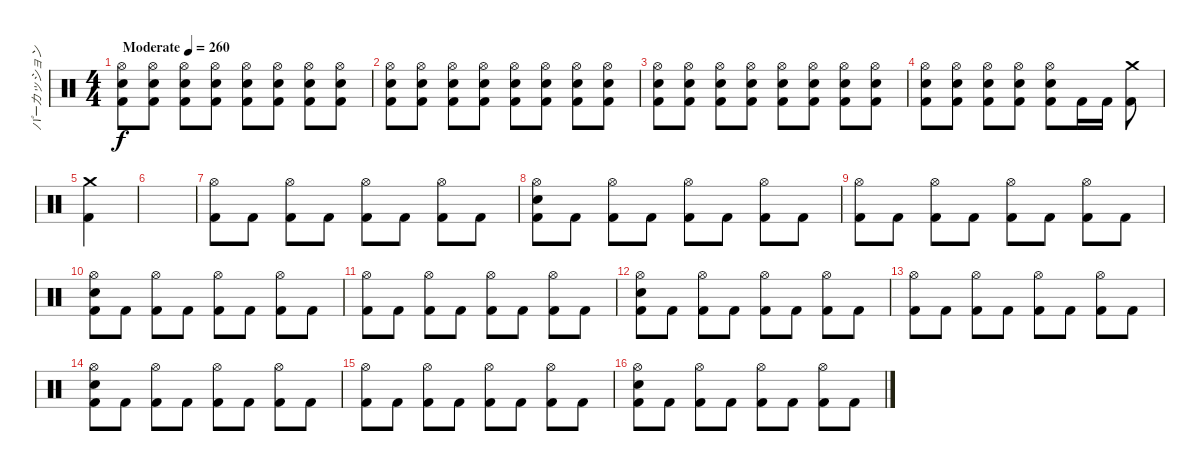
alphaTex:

\track ("パーカッション" "パーカッション") {instrument percussion}
\staff {score}
\articulation defaults
\ts (4 4)
\tempo (260 "Moderate")
\clef neutral
\ks c
("Hi-Hat (open)" "Snare (hit) 2" "Kick (hit) 2").8{dy f} ("Hi-Hat (open)" "Snare (hit) 2" "Kick (hit) 2").8 ("Hi-Hat (open)" "Snare (hit) 2" "Kick (hit) 2").8 ("Hi-Hat (open)" "Snare (hit) 2" "Kick (hit) 2").8 ("Hi-Hat (open)" "Snare (hit) 2" "Kick (hit) 2").8 ("Hi-Hat (open)" "Snare (hit) 2" "Kick (hit) 2").8 ("Hi-Hat (open)" "Snare (hit) 2" "Kick (hit) 2").8 ("Hi-Hat (open)" "Snare (hit) 2" "Kick (hit) 2").8 |
("Hi-Hat (open)" "Snare (hit) 2" "Kick (hit) 2").8 ("Hi-Hat (open)" "Snare (hit) 2" "Kick (hit) 2").8 ("Hi-Hat (open)" "Snare (hit) 2" "Kick (hit) 2").8 ("Hi-Hat (open)" "Snare (hit) 2" "Kick (hit) 2").8 ("Hi-Hat (open)" "Snare (hit) 2" "Kick (hit) 2").8 ("Hi-Hat (open)" "Snare (hit) 2" "Kick (hit) 2").8 ("Hi-Hat (open)" "Snare (hit) 2" "Kick (hit) 2").8 ("Hi-Hat (open)" "Snare (hit) 2" "Kick (hit) 2").8 |
("Hi-Hat (open)" "Snare (hit) 2" "Kick (hit) 2").8 ("Hi-Hat (open)" "Snare (hit) 2" "Kick (hit) 2").8 ("Hi-Hat (open)" "Snare (hit) 2" "Kick (hit) 2").8 ("Hi-Hat (open)" "Snare (hit) 2" "Kick (hit) 2").8 ("Hi-Hat (open)" "Snare (hit) 2" "Kick (hit) 2").8 ("Hi-Hat (open)" "Snare (hit) 2" "Kick (hit) 2").8 ("Hi-Hat (open)" "Snare (hit) 2" "Kick (hit) 2").8 ("Hi-Hat (open)" "Snare (hit) 2" "Kick (hit) 2").8 |
("Hi-Hat (open)" "Snare (hit) 2" "Kick (hit) 2").8 ("Hi-Hat (open)" "Snare (hit) 2" "Kick (hit) 2").8 ("Hi-Hat (open)" "Snare (hit) 2" "Kick (hit) 2").8 ("Hi-Hat (open)" "Snare (hit) 2" "Kick (hit) 2").8 ("Hi-Hat (open)" "Snare (hit) 2" "Kick (hit) 2").8 "Kick (hit) 2".16 "Kick (hit) 2".16 ("Crash medium (hit)" "Kick (hit) 2").8 |
("Crash medium (hit)" "Kick (hit) 2").4 |
|
("Hi-Hat (open)" "Kick (hit) 2").8 "Kick (hit) 2".8 ("Hi-Hat (open)" "Kick (hit) 2").8 "Kick (hit) 2".8 ("Hi-Hat (open)" "Kick (hit) 2").8 "Kick (hit) 2".8 ("Hi-Hat (open)" "Kick (hit) 2").8 "Kick (hit) 2".8 |
("Snare (hit) 2" "Hi-Hat (open)" "Kick (hit) 2").8 "Kick (hit) 2".8 ("Hi-Hat (open)" "Kick (hit) 2").8 "Kick (hit) 2".8 ("Hi-Hat (open)" "Kick (hit) 2").8 "Kick (hit) 2".8 ("Hi-Hat (open)" "Kick (hit) 2").8 "Kick (hit) 2".8 |
("Hi-Hat (open)" "Kick (hit) 2").8 "Kick (hit) 2".8 ("Hi-Hat (open)" "Kick (hit) 2").8 "Kick (hit) 2".8 ("Hi-Hat (open)" "Kick (hit) 2").8 "Kick (hit) 2".8 ("Hi-Hat (open)" "Kick (hit) 2").8 "Kick (hit) 2".8 |
("Snare (hit) 2" "Hi-Hat (open)" "Kick (hit) 2").8 "Kick (hit) 2".8 ("Hi-Hat (open)" "Kick (hit) 2").8 "Kick (hit) 2".8 ("Hi-Hat (open)" "Kick (hit) 2").8 "Kick (hit) 2".8 ("Hi-Hat (open)" "Kick (hit) 2").8 "Kick (hit) 2".8 |
("Hi-Hat (open)" "Kick (hit) 2").8 "Kick (hit) 2".8 ("Hi-Hat (open)" "Kick (hit) 2").8 "Kick (hit) 2".8 ("Hi-Hat (open)" "Kick (hit) 2").8 "Kick (hit) 2".8 ("Hi-Hat (open)" "Kick (hit) 2").8 "Kick (hit) 2".8 |
("Snare (hit) 2" "Hi-Hat (open)" "Kick (hit) 2").8 "Kick (hit) 2".8 ("Hi-Hat (open)" "Kick (hit) 2").8 "Kick (hit) 2".8 ("Hi-Hat (open)" "Kick (hit) 2").8 "Kick (hit) 2".8 ("Hi-Hat (open)" "Kick (hit) 2").8 "Kick (hit) 2".8 |
("Hi-Hat (open)" "Kick (hit) 2").8 "Kick (hit) 2".8 ("Hi-Hat (open)" "Kick (hit) 2").8 "Kick (hit) 2".8 ("Hi-Hat (open)" "Kick (hit) 2").8 "Kick (hit) 2".8 ("Hi-Hat (open)" "Kick (hit) 2").8 "Kick (hit) 2".8 |
("Snare (hit) 2" "Hi-Hat (open)" "Kick (hit) 2").8 "Kick (hit) 2".8 ("Hi-Hat (open)" "Kick (hit) 2").8 "Kick (hit) 2".8 ("Hi-Hat (open)" "Kick (hit) 2").8 "Kick (hit) 2".8 ("Hi-Hat (open)" "Kick (hit) 2").8 "Kick (hit) 2".8 |
("Hi-Hat (open)" "Kick (hit) 2").8 "Kick (hit) 2".8 ("Hi-Hat (open)" "Kick (hit) 2").8 "Kick (hit) 2".8 ("Hi-Hat (open)" "Kick (hit) 2").8 "Kick (hit) 2".8 ("Hi-Hat (open)" "Kick (hit) 2").8 "Kick (hit) 2".8 |
("Snare (hit) 2" "Hi-Hat (open)" "Kick (hit) 2").8 "Kick (hit) 2".8 ("Hi-Hat (open)" "Kick (hit) 2").8 "Kick (hit) 2".8 ("Hi-Hat (open)" "Kick (hit) 2").8 "Kick (hit) 2".8 ("Hi-Hat (open)" "Kick (hit) 2").8 "Kick (hit) 2".8
